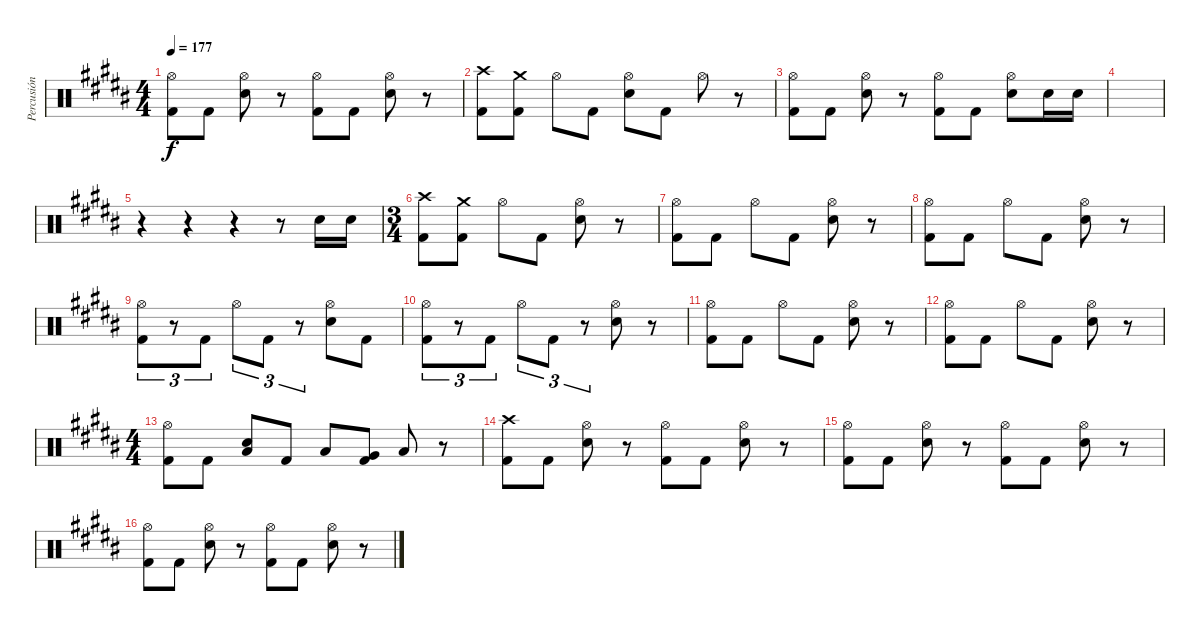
\track ("Percusión" "Percusión") {instrument percussion}
\staff {score}
\articulation defaults
\ts (4 4)
\tempo 177
\clef neutral
\ks g#minor
("Kick (hit) 2" "Hi-Hat (open)").8{dy f} "Kick (hit) 2".8 ("Snare (hit) 2" "Hi-Hat (open)").8 r.8 ("Kick (hit) 2" "Hi-Hat (open)").8 "Kick (hit) 2".8 ("Snare (hit) 2" "Hi-Hat (open)").8 r.8 |
("Kick (hit) 2" "Crash high (hit)").8 ("Kick (hit) 2" "Crash medium (hit)").8 "Hi-Hat (open)".8 "Kick (hit) 2".8 ("Snare (hit) 2" "Hi-Hat (open)").8 "Kick (hit) 2".8 "Hi-Hat (open)".8 r.8 |
("Kick (hit) 2" "Hi-Hat (open)").8 "Kick (hit) 2".8 ("Snare (hit) 2" "Hi-Hat (open)").8 r.8 ("Kick (hit) 2" "Hi-Hat (open)").8 "Kick (hit) 2".8 ("Snare (hit) 2" "Hi-Hat (open)").8 "Snare (hit) 2".16 "Snare (hit) 2".16 |
|
r.4 r.4 r.4 r.8 "Snare (hit) 2".16 "Snare (hit) 2".16 |
\ts (3 4)
("Kick (hit) 2" "Crash high (hit)").8 ("Kick (hit) 2" "Crash medium (hit)").8 "Hi-Hat (open)".8 "Kick (hit) 2".8 ("Snare (hit) 2" "Hi-Hat (open)").8 r.8 |
("Kick (hit) 2" "Hi-Hat (open)").8 "Kick (hit) 2".8 "Hi-Hat (open)".8 "Kick (hit) 2".8 ("Snare (hit) 2" "Hi-Hat (open)").8 r.8 |
("Kick (hit) 2" "Hi-Hat (open)").8 "Kick (hit) 2".8 "Hi-Hat (open)".8 "Kick (hit) 2".8 ("Snare (hit) 2" "Hi-Hat (open)").8 r.8 |
("Kick (hit) 2" "Hi-Hat (open)").8{tu (3 2)} r.8{tu (3 2)} "Kick (hit) 2".8{tu (3 2)} "Hi-Hat (open)".8{tu (3 2)} "Kick (hit) 2".8{tu (3 2)} r.8{tu (3 2)} ("Snare (hit) 2" "Hi-Hat (open)").8 "Kick (hit) 2".8 |
("Kick (hit) 2" "Hi-Hat (open)").8{tu (3 2)} r.8{tu (3 2)} "Kick (hit) 2".8{tu (3 2)} "Hi-Hat (open)".8{tu (3 2)} "Kick (hit) 2".8{tu (3 2)} r.8{tu (3 2)} ("Snare (hit) 2" "Hi-Hat (open)").8 r.8 |
("Kick (hit) 2" "Hi-Hat (open)").8 "Kick (hit) 2".8 "Hi-Hat (open)".8 "Kick (hit) 2".8 ("Snare (hit) 2" "Hi-Hat (open)").8 r.8 |
("Kick (hit) 2" "Hi-Hat (open)").8 "Kick (hit) 2".8 "Hi-Hat (open)".8 "Kick (hit) 2".8 ("Snare (hit) 2" "Hi-Hat (open)").8 r.8 |
\ts (4 4)
("Kick (hit) 2" "Hi-Hat (open)").8 "Kick (hit) 2".8 ("Snare (hit) 2" "Low Floor Tom (hit)").8 "Kick (hit) 2".8 "Low Tom (hit)".8 ("Kick (hit) 2" "Very Low Tom (hit)").8 "Low Floor Tom (hit)".8 r.8 |
("Kick (hit) 2" "Crash high (hit)").8 "Kick (hit) 2".8 ("Snare (hit) 2" "Hi-Hat (open)").8 r.8 ("Kick (hit) 2" "Hi-Hat (open)").8 "Kick (hit) 2".8 ("Snare (hit) 2" "Hi-Hat (open)").8 r.8 |
("Kick (hit) 2" "Hi-Hat (open)").8 "Kick (hit) 2".8 ("Snare (hit) 2" "Hi-Hat (open)").8 r.8 ("Kick (hit) 2" "Hi-Hat (open)").8 "Kick (hit) 2".8 ("Snare (hit) 2" "Hi-Hat (open)").8 r.8 |
("Kick (hit) 2" "Hi-Hat (open)").8 "Kick (hit) 2".8 ("Snare (hit) 2" "Hi-Hat (open)").8 r.8 ("Kick (hit) 2" "Hi-Hat (open)").8 "Kick (hit) 2".8 ("Snare (hit) 2" "Hi-Hat (open)").8 r.8
